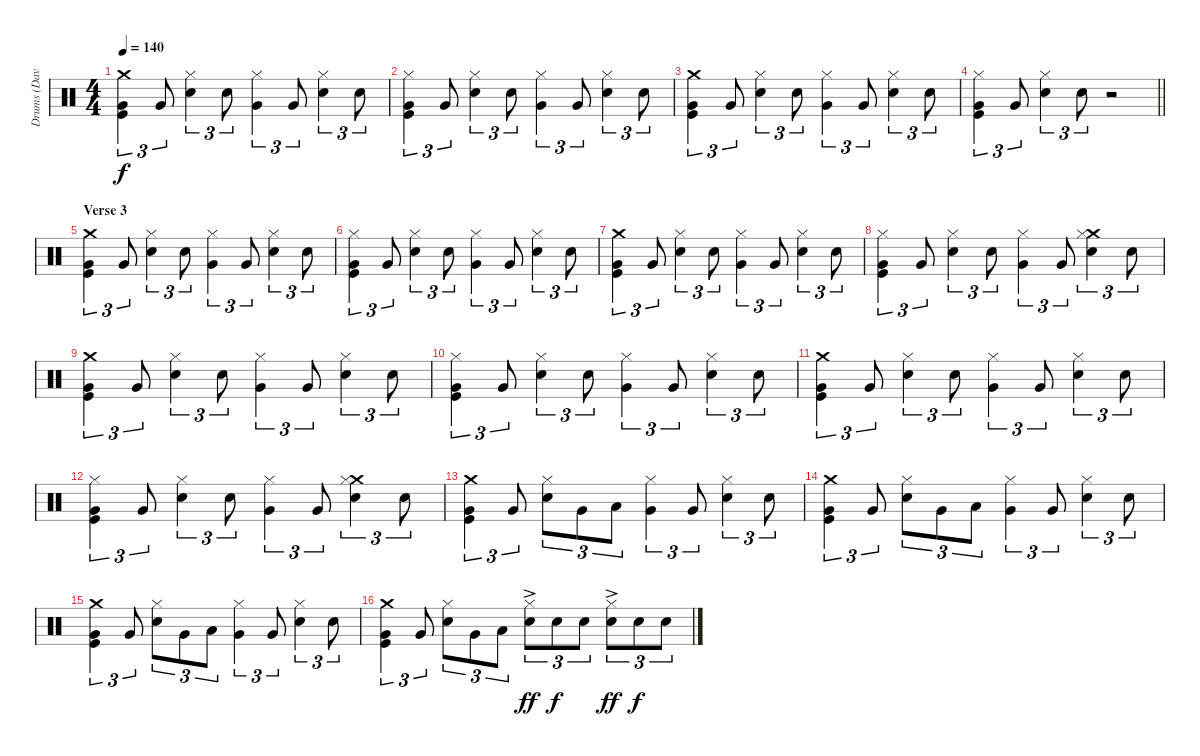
\track ("Drums (Dave Atkins)" "Drums (Dav") {instrument percussion}
\staff {score}
\articulation defaults
\ts (4 4)
\section ("" "")
\tempo 140
\clef neutral
\ks c
("Crash medium (hit)" "Very Low Tom (hit)" "Kick (hit)").4{tu (3 2) dy f} "Very Low Tom (hit)".8{tu (3 2)} ("Hi-Hat (closed)" "Snare (hit) 2").4{tu (3 2)} "Snare (hit) 2".8{tu (3 2)} ("Hi-Hat (closed)" "Very Low Tom (hit)").4{tu (3 2)} "Very Low Tom (hit)".8{tu (3 2)} ("Hi-Hat (closed)" "Snare (hit) 2").4{tu (3 2)} "Snare (hit) 2".8{tu (3 2)} |
("Hi-Hat (closed)" "Very Low Tom (hit)" "Kick (hit)").4{tu (3 2)} "Very Low Tom (hit)".8{tu (3 2)} ("Hi-Hat (closed)" "Snare (hit) 2").4{tu (3 2)} "Snare (hit) 2".8{tu (3 2)} ("Hi-Hat (closed)" "Very Low Tom (hit)").4{tu (3 2)} "Very Low Tom (hit)".8{tu (3 2)} ("Hi-Hat (closed)" "Snare (hit) 2").4{tu (3 2)} "Snare (hit) 2".8{tu (3 2)} |
("Crash medium (hit)" "Very Low Tom (hit)" "Kick (hit)").4{tu (3 2)} "Very Low Tom (hit)".8{tu (3 2)} ("Hi-Hat (closed)" "Snare (hit) 2").4{tu (3 2)} "Snare (hit) 2".8{tu (3 2)} ("Hi-Hat (closed)" "Very Low Tom (hit)").4{tu (3 2)} "Very Low Tom (hit)".8{tu (3 2)} ("Hi-Hat (closed)" "Snare (hit) 2").4{tu (3 2)} "Snare (hit) 2".8{tu (3 2)} |
\barLineRight lightlight
("Hi-Hat (closed)" "Very Low Tom (hit)" "Kick (hit)").4{tu (3 2)} "Very Low Tom (hit)".8{tu (3 2)} ("Hi-Hat (closed)" "Snare (hit) 2").4{tu (3 2)} "Snare (hit) 2".8{tu (3 2)} r.2 |
\section ("" "Verse 3")
("Crash medium (hit)" "Very Low Tom (hit)" "Kick (hit)").4{tu (3 2)} "Very Low Tom (hit)".8{tu (3 2)} ("Hi-Hat (closed)" "Snare (hit) 2").4{tu (3 2)} "Snare (hit) 2".8{tu (3 2)} ("Hi-Hat (closed)" "Very Low Tom (hit)").4{tu (3 2)} "Very Low Tom (hit)".8{tu (3 2)} ("Hi-Hat (closed)" "Snare (hit) 2").4{tu (3 2)} "Snare (hit) 2".8{tu (3 2)} |
("Hi-Hat (closed)" "Very Low Tom (hit)" "Kick (hit)").4{tu (3 2)} "Very Low Tom (hit)".8{tu (3 2)} ("Hi-Hat (closed)" "Snare (hit) 2").4{tu (3 2)} "Snare (hit) 2".8{tu (3 2)} ("Hi-Hat (closed)" "Very Low Tom (hit)").4{tu (3 2)} "Very Low Tom (hit)".8{tu (3 2)} ("Hi-Hat (closed)" "Snare (hit) 2").4{tu (3 2)} "Snare (hit) 2".8{tu (3 2)} |
("Crash medium (hit)" "Very Low Tom (hit)" "Kick (hit)").4{tu (3 2)} "Very Low Tom (hit)".8{tu (3 2)} ("Hi-Hat (closed)" "Snare (hit) 2").4{tu (3 2)} "Snare (hit) 2".8{tu (3 2)} ("Hi-Hat (closed)" "Very Low Tom (hit)").4{tu (3 2)} "Very Low Tom (hit)".8{tu (3 2)} ("Hi-Hat (closed)" "Snare (hit) 2").4{tu (3 2)} "Snare (hit) 2".8{tu (3 2)} |
("Hi-Hat (closed)" "Very Low Tom (hit)" "Kick (hit)").4{tu (3 2)} "Very Low Tom (hit)".8{tu (3 2)} ("Hi-Hat (closed)" "Snare (hit) 2").4{tu (3 2)} "Snare (hit) 2".8{tu (3 2)} ("Hi-Hat (closed)" "Very Low Tom (hit)").4{tu (3 2)} "Very Low Tom (hit)".8{tu (3 2)} ("Crash medium (hit)" "Hi-Hat (closed)" "Snare (hit) 2").4{tu (3 2)} "Snare (hit) 2".8{tu (3 2)} |
("Crash medium (hit)" "Very Low Tom (hit)" "Kick (hit)").4{tu (3 2)} "Very Low Tom (hit)".8{tu (3 2)} ("Hi-Hat (closed)" "Snare (hit) 2").4{tu (3 2)} "Snare (hit) 2".8{tu (3 2)} ("Hi-Hat (closed)" "Very Low Tom (hit)").4{tu (3 2)} "Very Low Tom (hit)".8{tu (3 2)} ("Hi-Hat (closed)" "Snare (hit) 2").4{tu (3 2)} "Snare (hit) 2".8{tu (3 2)} |
("Hi-Hat (closed)" "Very Low Tom (hit)" "Kick (hit)").4{tu (3 2)} "Very Low Tom (hit)".8{tu (3 2)} ("Hi-Hat (closed)" "Snare (hit) 2").4{tu (3 2)} "Snare (hit) 2".8{tu (3 2)} ("Hi-Hat (closed)" "Very Low Tom (hit)").4{tu (3 2)} "Very Low Tom (hit)".8{tu (3 2)} ("Hi-Hat (closed)" "Snare (hit) 2").4{tu (3 2)} "Snare (hit) 2".8{tu (3 2)} |
("Crash medium (hit)" "Very Low Tom (hit)" "Kick (hit)").4{tu (3 2)} "Very Low Tom (hit)".8{tu (3 2)} ("Hi-Hat (closed)" "Snare (hit) 2").4{tu (3 2)} "Snare (hit) 2".8{tu (3 2)} ("Hi-Hat (closed)" "Very Low Tom (hit)").4{tu (3 2)} "Very Low Tom (hit)".8{tu (3 2)} ("Hi-Hat (closed)" "Snare (hit) 2").4{tu (3 2)} "Snare (hit) 2".8{tu (3 2)} |
("Hi-Hat (closed)" "Very Low Tom (hit)" "Kick (hit)").4{tu (3 2)} "Very Low Tom (hit)".8{tu (3 2)} ("Hi-Hat (closed)" "Snare (hit) 2").4{tu (3 2)} "Snare (hit) 2".8{tu (3 2)} ("Hi-Hat (closed)" "Very Low Tom (hit)").4{tu (3 2)} "Very Low Tom (hit)".8{tu (3 2)} ("Crash medium (hit)" "Hi-Hat (closed)" "Snare (hit) 2").4{tu (3 2)} "Snare (hit) 2".8{tu (3 2)} |
("Crash medium (hit)" "Very Low Tom (hit)" "Kick (hit)").4{tu (3 2)} "Very Low Tom (hit)".8{tu (3 2)} ("Hi-Hat (closed)" "Snare (hit) 2").8{tu (3 2)} "Very Low Tom (hit)".8{tu (3 2)} "Low Floor Tom (hit)".8{tu (3 2)} ("Hi-Hat (closed)" "Very Low Tom (hit)").4{tu (3 2)} "Very Low Tom (hit)".8{tu (3 2)} ("Hi-Hat (closed)" "Snare (hit) 2").4{tu (3 2)} "Snare (hit) 2".8{tu (3 2)} |
("Crash medium (hit)" "Very Low Tom (hit)" "Kick (hit)").4{tu (3 2)} "Very Low Tom (hit)".8{tu (3 2)} ("Hi-Hat (closed)" "Snare (hit) 2").8{tu (3 2)} "Very Low Tom (hit)".8{tu (3 2)} "Low Floor Tom (hit)".8{tu (3 2)} ("Hi-Hat (closed)" "Very Low Tom (hit)").4{tu (3 2)} "Very Low Tom (hit)".8{tu (3 2)} ("Hi-Hat (closed)" "Snare (hit) 2").4{tu (3 2)} "Snare (hit) 2".8{tu (3 2)} |
("Crash medium (hit)" "Very Low Tom (hit)" "Kick (hit)").4{tu (3 2)} "Very Low Tom (hit)".8{tu (3 2)} ("Hi-Hat (closed)" "Snare (hit) 2").8{tu (3 2)} "Very Low Tom (hit)".8{tu (3 2)} "Low Floor Tom (hit)".8{tu (3 2)} ("Hi-Hat (closed)" "Very Low Tom (hit)").4{tu (3 2)} "Very Low Tom (hit)".8{tu (3 2)} ("Hi-Hat (closed)" "Snare (hit) 2").4{tu (3 2)} "Snare (hit) 2".8{tu (3 2)} |
("Crash medium (hit)" "Very Low Tom (hit)" "Kick (hit)").4{tu (3 2)} "Very Low Tom (hit)".8{tu (3 2)} ("Hi-Hat (closed)" "Snare (hit) 2").8{tu (3 2)} "Very Low Tom (hit)".8{tu (3 2)} "Low Floor Tom (hit)".8{tu (3 2)} ("Hi-Hat (closed)" "Snare (hit) 2"{ac}).8{tu (3 2) dy ff} "Snare (hit) 2".8{tu (3 2) dy f} "Snare (hit) 2".8{tu (3 2)} ("Hi-Hat (closed)" "Snare (hit) 2"{ac}).8{tu (3 2) dy ff} "Snare (hit) 2".8{tu (3 2) dy f} "Snare (hit) 2".8{tu (3 2)}
